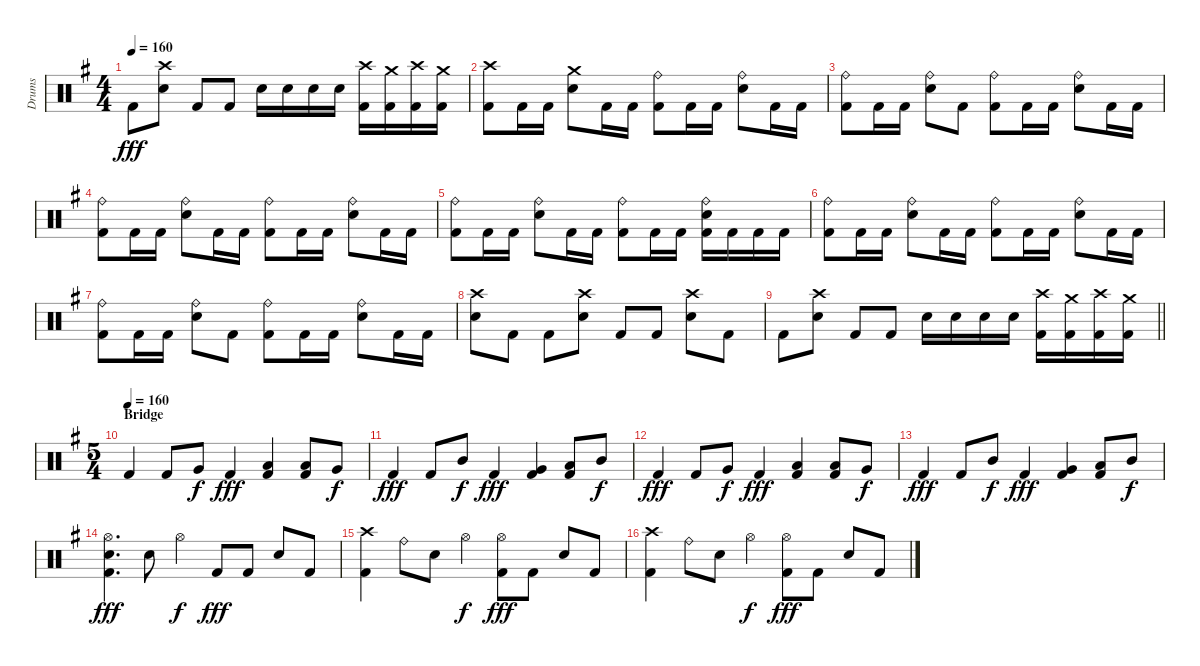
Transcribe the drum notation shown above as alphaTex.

\track ("Drums" "Drums") {instrument percussion}
\staff {score}
\articulation defaults
\ts (4 4)
\tempo 160
\clef neutral
\ks g "Kick (hit) 2".8{dy fff}
("Crash high (hit)" "Snare (hit) 2").8 "Kick (hit) 2".8 "Kick (hit) 2".8 "Snare (hit) 2".16 "Snare (hit) 2".16 "Snare (hit) 2".16 "Snare (hit) 2".16 ("Crash high (hit)" "Kick (hit) 2").16 ("Crash medium (hit)" "Kick (hit) 2").16 ("Crash high (hit)" "Kick (hit) 2").16 ("Crash medium (hit)" "Kick (hit) 2").16 |
("Crash high (hit)" "Kick (hit) 2").8 "Kick (hit) 2".16 "Kick (hit) 2".16 ("Crash medium (hit)" "Snare (hit) 2").8 "Kick (hit) 2".16 "Kick (hit) 2".16 ("Ride (bell)" "Kick (hit) 2").8 "Kick (hit) 2".16 "Kick (hit) 2".16 ("Ride (bell)" "Snare (hit) 2").8 "Kick (hit) 2".16 "Kick (hit) 2".16 |
("Ride (bell)" "Kick (hit) 2").8 "Kick (hit) 2".16 "Kick (hit) 2".16 ("Ride (bell)" "Snare (hit) 2").8 "Kick (hit) 2".8 ("Ride (bell)" "Kick (hit) 2").8 "Kick (hit) 2".16 "Kick (hit) 2".16 ("Ride (bell)" "Snare (hit) 2").8 "Kick (hit) 2".16 "Kick (hit) 2".16 |
("Ride (bell)" "Kick (hit) 2").8 "Kick (hit) 2".16 "Kick (hit) 2".16 ("Ride (bell)" "Snare (hit) 2").8 "Kick (hit) 2".16 "Kick (hit) 2".16 ("Ride (bell)" "Kick (hit) 2").8 "Kick (hit) 2".16 "Kick (hit) 2".16 ("Ride (bell)" "Snare (hit) 2").8 "Kick (hit) 2".16 "Kick (hit) 2".16 |
("Ride (bell)" "Kick (hit) 2").8 "Kick (hit) 2".16 "Kick (hit) 2".16 ("Ride (bell)" "Snare (hit) 2").8 "Kick (hit) 2".16 "Kick (hit) 2".16 ("Ride (bell)" "Kick (hit) 2").8 "Kick (hit) 2".16 "Kick (hit) 2".16 ("Ride (bell)" "Snare (hit) 2" "Kick (hit) 2").16 "Kick (hit) 2".16 "Kick (hit) 2".16 "Kick (hit) 2".16 |
("Ride (bell)" "Kick (hit) 2").8 "Kick (hit) 2".16 "Kick (hit) 2".16 ("Ride (bell)" "Snare (hit) 2").8 "Kick (hit) 2".16 "Kick (hit) 2".16 ("Ride (bell)" "Kick (hit) 2").8 "Kick (hit) 2".16 "Kick (hit) 2".16 ("Ride (bell)" "Snare (hit) 2").8 "Kick (hit) 2".16 "Kick (hit) 2".16 |
("Ride (bell)" "Kick (hit) 2").8 "Kick (hit) 2".16 "Kick (hit) 2".16 ("Ride (bell)" "Snare (hit) 2").8 "Kick (hit) 2".8 ("Ride (bell)" "Kick (hit) 2").8 "Kick (hit) 2".16 "Kick (hit) 2".16 ("Ride (bell)" "Snare (hit) 2").8 "Kick (hit) 2".16 "Kick (hit) 2".16 |
("Crash high (hit)" "Snare (hit) 2").8 "Kick (hit) 2".8 "Kick (hit) 2".8 ("Crash high (hit)" "Snare (hit) 2").8 "Kick (hit) 2".8 "Kick (hit) 2".8 ("Crash high (hit)" "Snare (hit) 2").8 "Kick (hit) 2".8 |
\barLineRight lightlight "Kick (hit) 2".8
("Crash high (hit)" "Snare (hit) 2").8 "Kick (hit) 2".8 "Kick (hit) 2".8 "Snare (hit) 2".16 "Snare (hit) 2".16 "Snare (hit) 2".16 "Snare (hit) 2".16 ("Crash high (hit)" "Kick (hit) 2").16 ("Crash medium (hit)" "Kick (hit) 2").16 ("Crash high (hit)" "Kick (hit) 2").16 ("Crash medium (hit)" "Kick (hit) 2").16 |
\ts (5 4)
\section ("" "Bridge")
\tempo (160)
"Kick (hit) 2".4{volume 16} "Kick (hit) 2".8 "Very Low Tom (hit)".8{dy f} "Kick (hit) 2".4{dy fff} ("Low Tom (hit)" "Kick (hit) 2").4 ("Low Tom (hit)" "Kick (hit) 2").8 "Very Low Tom (hit)".8{dy f} |
"Kick (hit) 2".4{dy fff} "Kick (hit) 2".8 "Mid Tom (hit)".8{dy f} "Kick (hit) 2".4{dy fff} ("Very Low Tom (hit)" "Kick (hit) 2").4 ("Low Tom (hit)" "Kick (hit) 2").8 "Mid Tom (hit)".8{dy f} |
"Kick (hit) 2".4{dy fff} "Kick (hit) 2".8 "Very Low Tom (hit)".8{dy f} "Kick (hit) 2".4{dy fff} ("Low Tom (hit)" "Kick (hit) 2").4 ("Low Tom (hit)" "Kick (hit) 2").8 "Very Low Tom (hit)".8{dy f} |
"Kick (hit) 2".4{dy fff} "Kick (hit) 2".8 "Mid Tom (hit)".8{dy f} "Kick (hit) 2".4{dy fff} ("Very Low Tom (hit)" "Kick (hit) 2").4 ("Low Tom (hit)" "Kick (hit) 2").8 "Mid Tom (hit)".8{dy f} |
("Hi-Hat (open)" "Snare (hit) 2" "Kick (hit) 2").4{d dy fff} "Snare (hit) 2".8 "Hi-Hat (open)".4{dy f} "Kick (hit) 2".8{dy fff} "Kick (hit) 2".8 "Snare (hit) 2".8 "Kick (hit) 2".8 |
("Crash high (hit)" "Kick (hit) 2").4 "Ride (bell)".8 "Snare (hit) 2".8 "Hi-Hat (open)".4{dy f} ("Hi-Hat (open)" "Kick (hit) 2").8{dy fff} "Kick (hit) 2".8 "Snare (hit) 2".8 "Kick (hit) 2".8 |
("Crash high (hit)" "Kick (hit) 2").4 "Ride (bell)".8 "Snare (hit) 2".8 "Hi-Hat (open)".4{dy f} ("Hi-Hat (open)" "Kick (hit) 2").8{dy fff} "Kick (hit) 2".8 "Snare (hit) 2".8 "Kick (hit) 2".8
